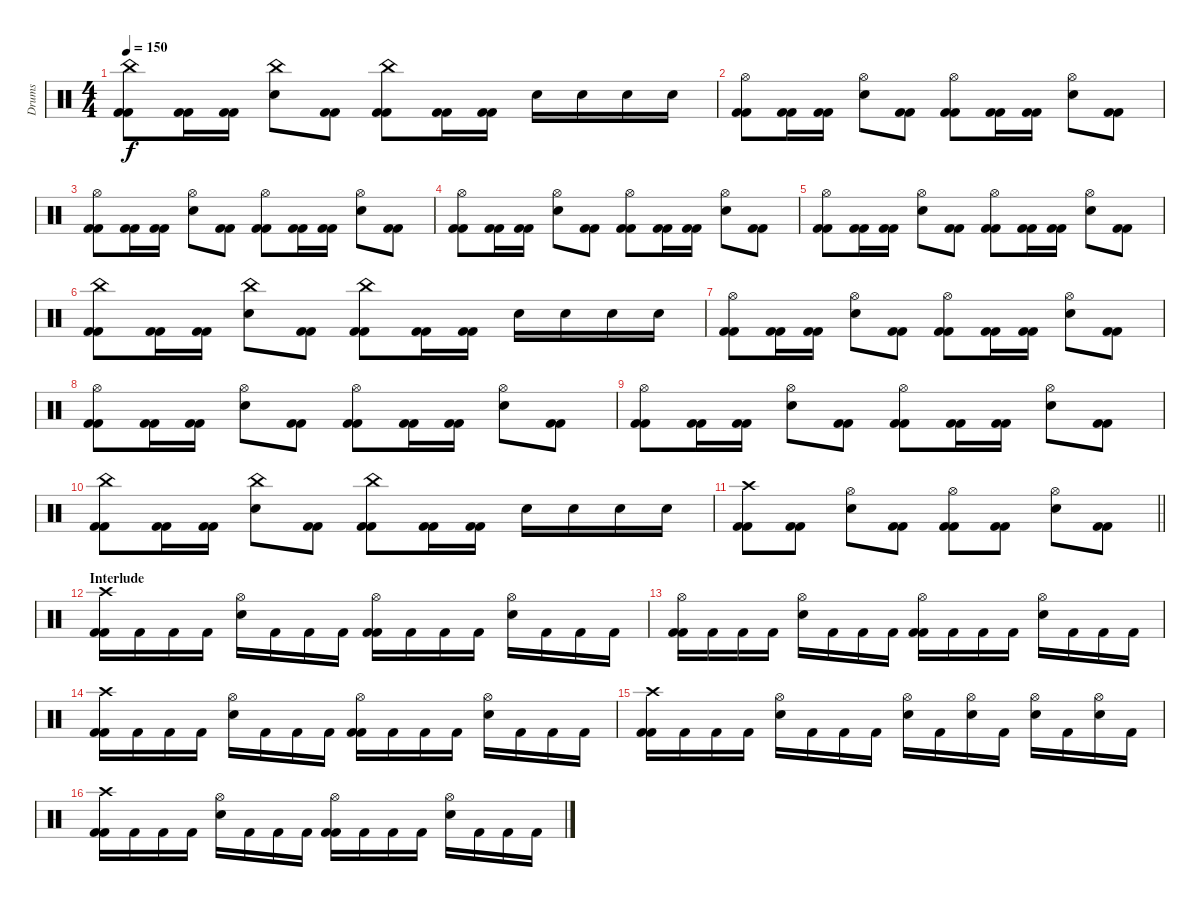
\track ("Drums" "Drums") {instrument percussion}
\staff {score}
\articulation defaults
\ts (4 4)
\tempo 150
\clef neutral
\ks c
("China (hit)" "Kick (hit) 2" "Kick (hit) 2").8{dy f} ("Kick (hit) 2" "Kick (hit) 2").16 ("Kick (hit) 2" "Kick (hit) 2").16 ("Electric Snare (hit)" "China (hit)").8 ("Kick (hit) 2" "Kick (hit) 2").8 ("China (hit)" "Kick (hit) 2" "Kick (hit) 2").8 ("Kick (hit) 2" "Kick (hit) 2").16 ("Kick (hit) 2" "Kick (hit) 2").16 "Electric Snare (hit)".16 "Electric Snare (hit)".16 "Electric Snare (hit)".16 "Electric Snare (hit)".16 |
("Hi-Hat (open)" "Kick (hit) 2" "Kick (hit) 2").8 ("Kick (hit) 2" "Kick (hit) 2").16 ("Kick (hit) 2" "Kick (hit) 2").16 ("Electric Snare (hit)" "Hi-Hat (open)").8 ("Kick (hit) 2" "Kick (hit) 2").8 ("Hi-Hat (open)" "Kick (hit) 2" "Kick (hit) 2").8 ("Kick (hit) 2" "Kick (hit) 2").16 ("Kick (hit) 2" "Kick (hit) 2").16 ("Electric Snare (hit)" "Hi-Hat (open)").8 ("Kick (hit) 2" "Kick (hit) 2").8 |
("Hi-Hat (open)" "Kick (hit) 2" "Kick (hit) 2").8 ("Kick (hit) 2" "Kick (hit) 2").16 ("Kick (hit) 2" "Kick (hit) 2").16 ("Electric Snare (hit)" "Hi-Hat (open)").8 ("Kick (hit) 2" "Kick (hit) 2").8 ("Hi-Hat (open)" "Kick (hit) 2" "Kick (hit) 2").8 ("Kick (hit) 2" "Kick (hit) 2").16 ("Kick (hit) 2" "Kick (hit) 2").16 ("Electric Snare (hit)" "Hi-Hat (open)").8 ("Kick (hit) 2" "Kick (hit) 2").8 |
("Hi-Hat (open)" "Kick (hit) 2" "Kick (hit) 2").8 ("Kick (hit) 2" "Kick (hit) 2").16 ("Kick (hit) 2" "Kick (hit) 2").16 ("Electric Snare (hit)" "Hi-Hat (open)").8 ("Kick (hit) 2" "Kick (hit) 2").8 ("Hi-Hat (open)" "Kick (hit) 2" "Kick (hit) 2").8 ("Kick (hit) 2" "Kick (hit) 2").16 ("Kick (hit) 2" "Kick (hit) 2").16 ("Electric Snare (hit)" "Hi-Hat (open)").8 ("Kick (hit) 2" "Kick (hit) 2").8 |
("Hi-Hat (open)" "Kick (hit) 2" "Kick (hit) 2").8 ("Kick (hit) 2" "Kick (hit) 2").16 ("Kick (hit) 2" "Kick (hit) 2").16 ("Electric Snare (hit)" "Hi-Hat (open)").8 ("Kick (hit) 2" "Kick (hit) 2").8 ("Hi-Hat (open)" "Kick (hit) 2" "Kick (hit) 2").8 ("Kick (hit) 2" "Kick (hit) 2").16 ("Kick (hit) 2" "Kick (hit) 2").16 ("Electric Snare (hit)" "Hi-Hat (open)").8 ("Kick (hit) 2" "Kick (hit) 2").8 |
("China (hit)" "Kick (hit) 2" "Kick (hit) 2").8 ("Kick (hit) 2" "Kick (hit) 2").16 ("Kick (hit) 2" "Kick (hit) 2").16 ("Electric Snare (hit)" "China (hit)").8 ("Kick (hit) 2" "Kick (hit) 2").8 ("China (hit)" "Kick (hit) 2" "Kick (hit) 2").8 ("Kick (hit) 2" "Kick (hit) 2").16 ("Kick (hit) 2" "Kick (hit) 2").16 "Electric Snare (hit)".16 "Electric Snare (hit)".16 "Electric Snare (hit)".16 "Electric Snare (hit)".16 |
("Hi-Hat (open)" "Kick (hit) 2" "Kick (hit) 2").8 ("Kick (hit) 2" "Kick (hit) 2").16 ("Kick (hit) 2" "Kick (hit) 2").16 ("Electric Snare (hit)" "Hi-Hat (open)").8 ("Kick (hit) 2" "Kick (hit) 2").8 ("Hi-Hat (open)" "Kick (hit) 2" "Kick (hit) 2").8 ("Kick (hit) 2" "Kick (hit) 2").16 ("Kick (hit) 2" "Kick (hit) 2").16 ("Electric Snare (hit)" "Hi-Hat (open)").8 ("Kick (hit) 2" "Kick (hit) 2").8 |
("Hi-Hat (open)" "Kick (hit) 2" "Kick (hit) 2").8 ("Kick (hit) 2" "Kick (hit) 2").16 ("Kick (hit) 2" "Kick (hit) 2").16 ("Electric Snare (hit)" "Hi-Hat (open)").8 ("Kick (hit) 2" "Kick (hit) 2").8 ("Hi-Hat (open)" "Kick (hit) 2" "Kick (hit) 2").8 ("Kick (hit) 2" "Kick (hit) 2").16 ("Kick (hit) 2" "Kick (hit) 2").16 ("Electric Snare (hit)" "Hi-Hat (open)").8 ("Kick (hit) 2" "Kick (hit) 2").8 |
("Hi-Hat (open)" "Kick (hit) 2" "Kick (hit) 2").8 ("Kick (hit) 2" "Kick (hit) 2").16 ("Kick (hit) 2" "Kick (hit) 2").16 ("Electric Snare (hit)" "Hi-Hat (open)").8 ("Kick (hit) 2" "Kick (hit) 2").8 ("Hi-Hat (open)" "Kick (hit) 2" "Kick (hit) 2").8 ("Kick (hit) 2" "Kick (hit) 2").16 ("Kick (hit) 2" "Kick (hit) 2").16 ("Electric Snare (hit)" "Hi-Hat (open)").8 ("Kick (hit) 2" "Kick (hit) 2").8 |
("China (hit)" "Kick (hit) 2" "Kick (hit) 2").8 ("Kick (hit) 2" "Kick (hit) 2").16 ("Kick (hit) 2" "Kick (hit) 2").16 ("Electric Snare (hit)" "China (hit)").8 ("Kick (hit) 2" "Kick (hit) 2").8 ("China (hit)" "Kick (hit) 2" "Kick (hit) 2").8 ("Kick (hit) 2" "Kick (hit) 2").16 ("Kick (hit) 2" "Kick (hit) 2").16 "Electric Snare (hit)".16 "Electric Snare (hit)".16 "Electric Snare (hit)".16 "Electric Snare (hit)".16 |
\barLineRight lightlight
("Crash high (hit)" "Kick (hit) 2" "Kick (hit) 2").8 ("Kick (hit) 2" "Kick (hit) 2").8 ("Hi-Hat (open)" "Electric Snare (hit)").8 ("Kick (hit) 2" "Kick (hit) 2").8 ("Kick (hit) 2" "Kick (hit) 2" "Hi-Hat (open)").8 ("Kick (hit) 2" "Kick (hit) 2").8 ("Electric Snare (hit)" "Hi-Hat (open)").8 ("Kick (hit) 2" "Kick (hit) 2").8 |
\section ("" "Interlude")
("Crash high (hit)" "Kick (hit) 2" "Kick (hit) 2").16 "Kick (hit) 2".16 "Kick (hit) 2".16 "Kick (hit) 2".16 ("Electric Snare (hit)" "Hi-Hat (open)").16 "Kick (hit) 2".16 "Kick (hit) 2".16 "Kick (hit) 2".16 ("Hi-Hat (open)" "Kick (hit) 2" "Kick (hit) 2").16 "Kick (hit) 2".16 "Kick (hit) 2".16 "Kick (hit) 2".16 ("Electric Snare (hit)" "Hi-Hat (open)").16 "Kick (hit) 2".16 "Kick (hit) 2".16 "Kick (hit) 2".16 |
("Hi-Hat (open)" "Kick (hit) 2" "Kick (hit) 2").16 "Kick (hit) 2".16 "Kick (hit) 2".16 "Kick (hit) 2".16 ("Electric Snare (hit)" "Hi-Hat (open)").16 "Kick (hit) 2".16 "Kick (hit) 2".16 "Kick (hit) 2".16 ("Hi-Hat (open)" "Kick (hit) 2" "Kick (hit) 2").16 "Kick (hit) 2".16 "Kick (hit) 2".16 "Kick (hit) 2".16 ("Electric Snare (hit)" "Hi-Hat (open)").16 "Kick (hit) 2".16 "Kick (hit) 2".16 "Kick (hit) 2".16 |
("Crash high (hit)" "Kick (hit) 2" "Kick (hit) 2").16 "Kick (hit) 2".16 "Kick (hit) 2".16 "Kick (hit) 2".16 ("Electric Snare (hit)" "Hi-Hat (open)").16 "Kick (hit) 2".16 "Kick (hit) 2".16 "Kick (hit) 2".16 ("Hi-Hat (open)" "Kick (hit) 2" "Kick (hit) 2").16 "Kick (hit) 2".16 "Kick (hit) 2".16 "Kick (hit) 2".16 ("Electric Snare (hit)" "Hi-Hat (open)").16 "Kick (hit) 2".16 "Kick (hit) 2".16 "Kick (hit) 2".16 |
("Crash high (hit)" "Kick (hit) 2" "Kick (hit) 2").16 "Kick (hit) 2".16 "Kick (hit) 2".16 "Kick (hit) 2".16 ("Electric Snare (hit)" "Hi-Hat (open)").16 "Kick (hit) 2".16 "Kick (hit) 2".16 "Kick (hit) 2".16 ("Hi-Hat (open)" "Electric Snare (hit)").16 "Kick (hit) 2".16 ("Electric Snare (hit)" "Hi-Hat (open)").16 "Kick (hit) 2".16 ("Electric Snare (hit)" "Hi-Hat (open)").16 "Kick (hit) 2".16 ("Hi-Hat (open)" "Electric Snare (hit)").16 "Kick (hit) 2".16 |
("Crash high (hit)" "Kick (hit) 2" "Kick (hit) 2").16 "Kick (hit) 2".16 "Kick (hit) 2".16 "Kick (hit) 2".16 ("Electric Snare (hit)" "Hi-Hat (open)").16 "Kick (hit) 2".16 "Kick (hit) 2".16 "Kick (hit) 2".16 ("Hi-Hat (open)" "Kick (hit) 2" "Kick (hit) 2").16 "Kick (hit) 2".16 "Kick (hit) 2".16 "Kick (hit) 2".16 ("Electric Snare (hit)" "Hi-Hat (open)").16 "Kick (hit) 2".16 "Kick (hit) 2".16 "Kick (hit) 2".16
